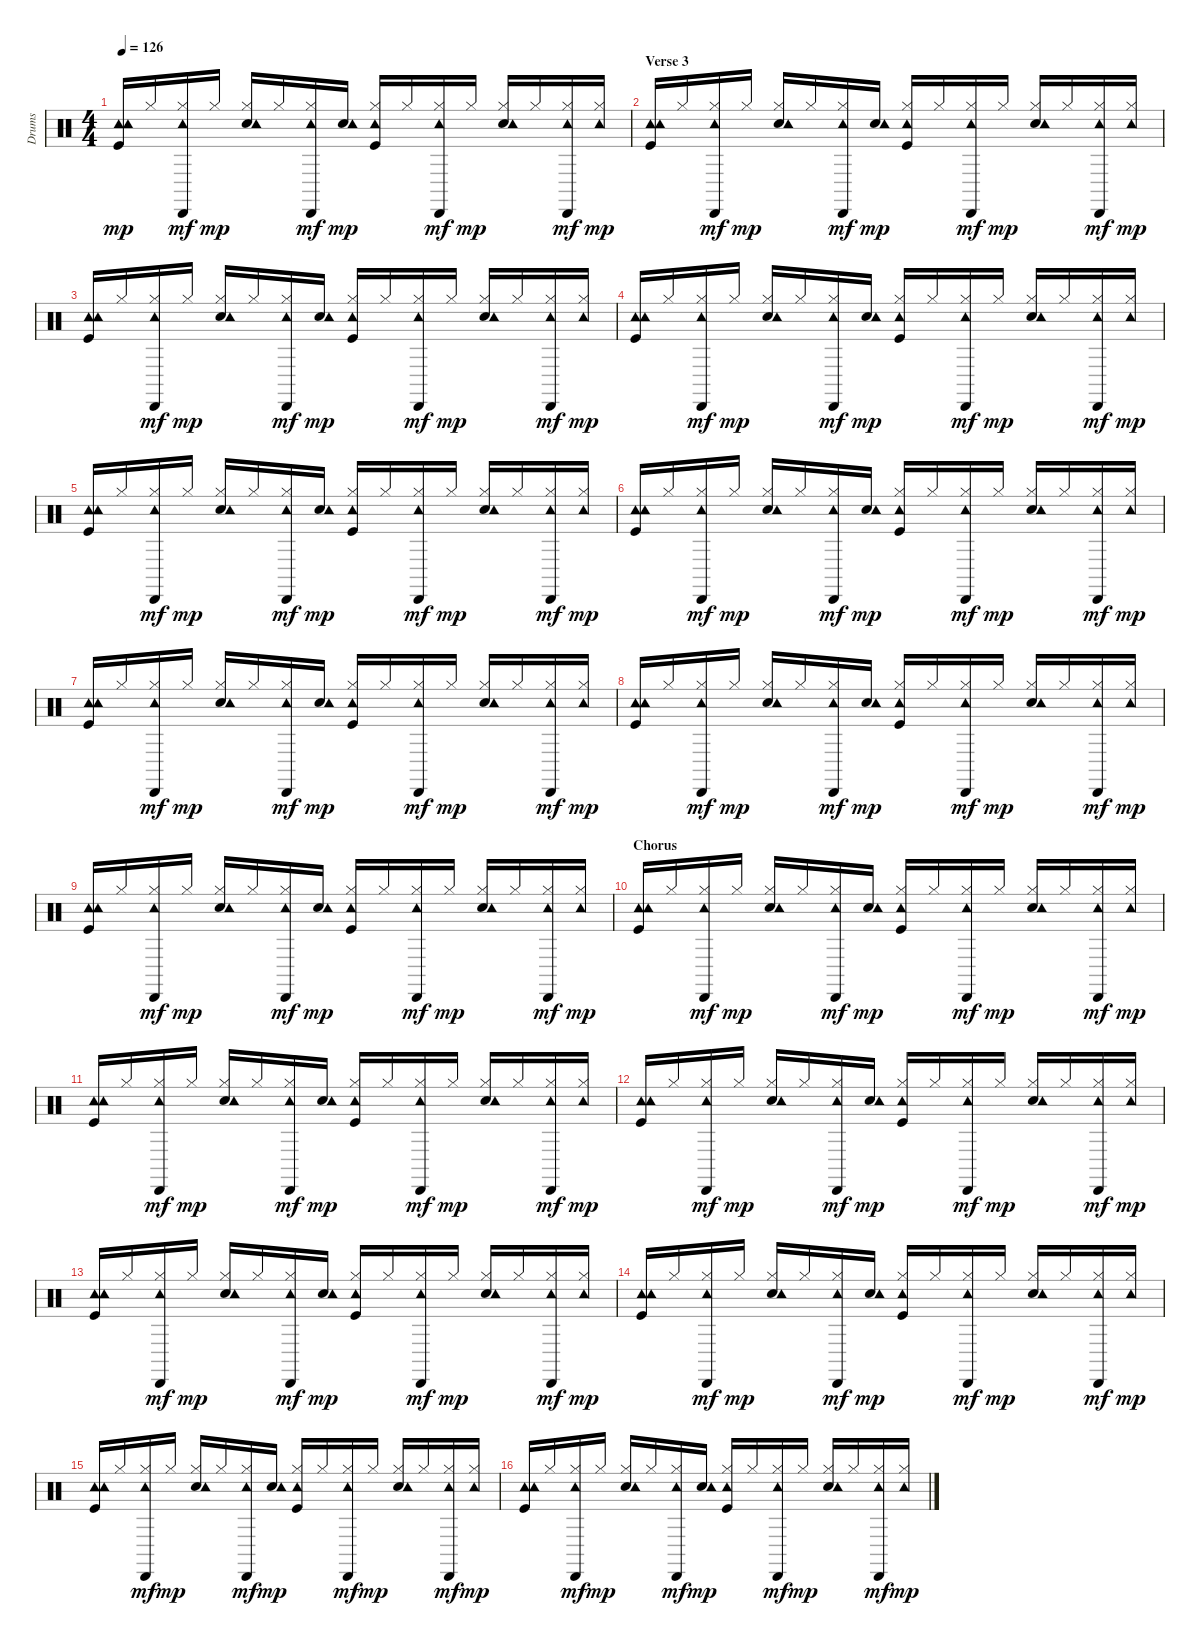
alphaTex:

\track ("Drums" "Drums") {instrument percussion}
\staff {score}
\articulation defaults
\ts (4 4)
\tempo 126
\clef neutral
\ks c
("Kick (hit)" "Tambourine (hit)" "Tambourine (hit)").16{dy mp} "Hi-Hat (closed)".16 ("Hi-Hat (closed)" "Tambourine (hit)" "Cabasa (hit)").16{dy mf} "Hi-Hat (closed)".16{dy mp} ("Snare (hit) 2" "Hi-Hat (closed)" "Tambourine (hit)").16 "Hi-Hat (closed)".16 ("Hi-Hat (closed)" "Tambourine (hit)" "Cabasa (hit)").16{dy mf} ("Snare (hit) 2" "Tambourine (hit)").16{dy mp} ("Kick (hit)" "Hi-Hat (closed)" "Tambourine (hit)").16 "Hi-Hat (closed)".16 ("Hi-Hat (closed)" "Tambourine (hit)" "Cabasa (hit)").16{dy mf} "Hi-Hat (closed)".16{dy mp} ("Snare (hit) 2" "Hi-Hat (closed)" "Tambourine (hit)").16 "Hi-Hat (closed)".16 ("Hi-Hat (closed)" "Tambourine (hit)" "Cabasa (hit)").16{dy mf} ("Hi-Hat (closed)" "Tambourine (hit)").16{dy mp} |
\section ("" "Verse 3")
("Kick (hit)" "Tambourine (hit)" "Tambourine (hit)").16 "Hi-Hat (closed)".16 ("Hi-Hat (closed)" "Tambourine (hit)" "Cabasa (hit)").16{dy mf} "Hi-Hat (closed)".16{dy mp} ("Snare (hit) 2" "Hi-Hat (closed)" "Tambourine (hit)").16 "Hi-Hat (closed)".16 ("Hi-Hat (closed)" "Tambourine (hit)" "Cabasa (hit)").16{dy mf} ("Snare (hit) 2" "Tambourine (hit)").16{dy mp} ("Kick (hit)" "Hi-Hat (closed)" "Tambourine (hit)").16 "Hi-Hat (closed)".16 ("Hi-Hat (closed)" "Tambourine (hit)" "Cabasa (hit)").16{dy mf} "Hi-Hat (closed)".16{dy mp} ("Snare (hit) 2" "Hi-Hat (closed)" "Tambourine (hit)").16 "Hi-Hat (closed)".16 ("Hi-Hat (closed)" "Tambourine (hit)" "Cabasa (hit)").16{dy mf} ("Hi-Hat (closed)" "Tambourine (hit)").16{dy mp} |
("Kick (hit)" "Tambourine (hit)" "Tambourine (hit)").16 "Hi-Hat (closed)".16 ("Hi-Hat (closed)" "Tambourine (hit)" "Cabasa (hit)").16{dy mf} "Hi-Hat (closed)".16{dy mp} ("Snare (hit) 2" "Hi-Hat (closed)" "Tambourine (hit)").16 "Hi-Hat (closed)".16 ("Hi-Hat (closed)" "Tambourine (hit)" "Cabasa (hit)").16{dy mf} ("Snare (hit) 2" "Tambourine (hit)").16{dy mp} ("Kick (hit)" "Hi-Hat (closed)" "Tambourine (hit)").16 "Hi-Hat (closed)".16 ("Hi-Hat (closed)" "Tambourine (hit)" "Cabasa (hit)").16{dy mf} "Hi-Hat (closed)".16{dy mp} ("Snare (hit) 2" "Hi-Hat (closed)" "Tambourine (hit)").16 "Hi-Hat (closed)".16 ("Hi-Hat (closed)" "Tambourine (hit)" "Cabasa (hit)").16{dy mf} ("Hi-Hat (closed)" "Tambourine (hit)").16{dy mp} |
("Kick (hit)" "Tambourine (hit)" "Tambourine (hit)").16 "Hi-Hat (closed)".16 ("Hi-Hat (closed)" "Tambourine (hit)" "Cabasa (hit)").16{dy mf} "Hi-Hat (closed)".16{dy mp} ("Snare (hit) 2" "Hi-Hat (closed)" "Tambourine (hit)").16 "Hi-Hat (closed)".16 ("Hi-Hat (closed)" "Tambourine (hit)" "Cabasa (hit)").16{dy mf} ("Snare (hit) 2" "Tambourine (hit)").16{dy mp} ("Kick (hit)" "Hi-Hat (closed)" "Tambourine (hit)").16 "Hi-Hat (closed)".16 ("Hi-Hat (closed)" "Tambourine (hit)" "Cabasa (hit)").16{dy mf} "Hi-Hat (closed)".16{dy mp} ("Snare (hit) 2" "Hi-Hat (closed)" "Tambourine (hit)").16 "Hi-Hat (closed)".16 ("Hi-Hat (closed)" "Tambourine (hit)" "Cabasa (hit)").16{dy mf} ("Hi-Hat (closed)" "Tambourine (hit)").16{dy mp} |
("Kick (hit)" "Tambourine (hit)" "Tambourine (hit)").16 "Hi-Hat (closed)".16 ("Hi-Hat (closed)" "Tambourine (hit)" "Cabasa (hit)").16{dy mf} "Hi-Hat (closed)".16{dy mp} ("Snare (hit) 2" "Hi-Hat (closed)" "Tambourine (hit)").16 "Hi-Hat (closed)".16 ("Hi-Hat (closed)" "Tambourine (hit)" "Cabasa (hit)").16{dy mf} ("Snare (hit) 2" "Tambourine (hit)").16{dy mp} ("Kick (hit)" "Hi-Hat (closed)" "Tambourine (hit)").16 "Hi-Hat (closed)".16 ("Hi-Hat (closed)" "Tambourine (hit)" "Cabasa (hit)").16{dy mf} "Hi-Hat (closed)".16{dy mp} ("Snare (hit) 2" "Hi-Hat (closed)" "Tambourine (hit)").16 "Hi-Hat (closed)".16 ("Hi-Hat (closed)" "Tambourine (hit)" "Cabasa (hit)").16{dy mf} ("Hi-Hat (closed)" "Tambourine (hit)").16{dy mp} |
("Kick (hit)" "Tambourine (hit)" "Tambourine (hit)").16 "Hi-Hat (closed)".16 ("Hi-Hat (closed)" "Tambourine (hit)" "Cabasa (hit)").16{dy mf} "Hi-Hat (closed)".16{dy mp} ("Snare (hit) 2" "Hi-Hat (closed)" "Tambourine (hit)").16 "Hi-Hat (closed)".16 ("Hi-Hat (closed)" "Tambourine (hit)" "Cabasa (hit)").16{dy mf} ("Snare (hit) 2" "Tambourine (hit)").16{dy mp} ("Kick (hit)" "Hi-Hat (closed)" "Tambourine (hit)").16 "Hi-Hat (closed)".16 ("Hi-Hat (closed)" "Tambourine (hit)" "Cabasa (hit)").16{dy mf} "Hi-Hat (closed)".16{dy mp} ("Snare (hit) 2" "Hi-Hat (closed)" "Tambourine (hit)").16 "Hi-Hat (closed)".16 ("Hi-Hat (closed)" "Tambourine (hit)" "Cabasa (hit)").16{dy mf} ("Hi-Hat (closed)" "Tambourine (hit)").16{dy mp} |
("Kick (hit)" "Tambourine (hit)" "Tambourine (hit)").16 "Hi-Hat (closed)".16 ("Hi-Hat (closed)" "Tambourine (hit)" "Cabasa (hit)").16{dy mf} "Hi-Hat (closed)".16{dy mp} ("Snare (hit) 2" "Hi-Hat (closed)" "Tambourine (hit)").16 "Hi-Hat (closed)".16 ("Hi-Hat (closed)" "Tambourine (hit)" "Cabasa (hit)").16{dy mf} ("Snare (hit) 2" "Tambourine (hit)").16{dy mp} ("Kick (hit)" "Hi-Hat (closed)" "Tambourine (hit)").16 "Hi-Hat (closed)".16 ("Hi-Hat (closed)" "Tambourine (hit)" "Cabasa (hit)").16{dy mf} "Hi-Hat (closed)".16{dy mp} ("Snare (hit) 2" "Hi-Hat (closed)" "Tambourine (hit)").16 "Hi-Hat (closed)".16 ("Hi-Hat (closed)" "Tambourine (hit)" "Cabasa (hit)").16{dy mf} ("Hi-Hat (closed)" "Tambourine (hit)").16{dy mp} |
("Kick (hit)" "Tambourine (hit)" "Tambourine (hit)").16 "Hi-Hat (closed)".16 ("Hi-Hat (closed)" "Tambourine (hit)" "Cabasa (hit)").16{dy mf} "Hi-Hat (closed)".16{dy mp} ("Snare (hit) 2" "Hi-Hat (closed)" "Tambourine (hit)").16 "Hi-Hat (closed)".16 ("Hi-Hat (closed)" "Tambourine (hit)" "Cabasa (hit)").16{dy mf} ("Snare (hit) 2" "Tambourine (hit)").16{dy mp} ("Kick (hit)" "Hi-Hat (closed)" "Tambourine (hit)").16 "Hi-Hat (closed)".16 ("Hi-Hat (closed)" "Tambourine (hit)" "Cabasa (hit)").16{dy mf} "Hi-Hat (closed)".16{dy mp} ("Snare (hit) 2" "Hi-Hat (closed)" "Tambourine (hit)").16 "Hi-Hat (closed)".16 ("Hi-Hat (closed)" "Tambourine (hit)" "Cabasa (hit)").16{dy mf} ("Hi-Hat (closed)" "Tambourine (hit)").16{dy mp} |
("Kick (hit)" "Tambourine (hit)" "Tambourine (hit)").16 "Hi-Hat (closed)".16 ("Hi-Hat (closed)" "Tambourine (hit)" "Cabasa (hit)").16{dy mf} "Hi-Hat (closed)".16{dy mp} ("Snare (hit) 2" "Hi-Hat (closed)" "Tambourine (hit)").16 "Hi-Hat (closed)".16 ("Hi-Hat (closed)" "Tambourine (hit)" "Cabasa (hit)").16{dy mf} ("Snare (hit) 2" "Tambourine (hit)").16{dy mp} ("Kick (hit)" "Hi-Hat (closed)" "Tambourine (hit)").16 "Hi-Hat (closed)".16 ("Hi-Hat (closed)" "Tambourine (hit)" "Cabasa (hit)").16{dy mf} "Hi-Hat (closed)".16{dy mp} ("Snare (hit) 2" "Hi-Hat (closed)" "Tambourine (hit)").16 "Hi-Hat (closed)".16 ("Hi-Hat (closed)" "Tambourine (hit)" "Cabasa (hit)").16{dy mf} ("Hi-Hat (closed)" "Tambourine (hit)").16{dy mp} |
\section ("" "Chorus")
("Kick (hit)" "Tambourine (hit)" "Tambourine (hit)").16 "Hi-Hat (closed)".16 ("Hi-Hat (closed)" "Tambourine (hit)" "Cabasa (hit)").16{dy mf} "Hi-Hat (closed)".16{dy mp} ("Snare (hit) 2" "Hi-Hat (closed)" "Tambourine (hit)").16 "Hi-Hat (closed)".16 ("Hi-Hat (closed)" "Tambourine (hit)" "Cabasa (hit)").16{dy mf} ("Snare (hit) 2" "Tambourine (hit)").16{dy mp} ("Kick (hit)" "Hi-Hat (closed)" "Tambourine (hit)").16 "Hi-Hat (closed)".16 ("Hi-Hat (closed)" "Tambourine (hit)" "Cabasa (hit)").16{dy mf} "Hi-Hat (closed)".16{dy mp} ("Snare (hit) 2" "Hi-Hat (closed)" "Tambourine (hit)").16 "Hi-Hat (closed)".16 ("Hi-Hat (closed)" "Tambourine (hit)" "Cabasa (hit)").16{dy mf} ("Hi-Hat (closed)" "Tambourine (hit)").16{dy mp} |
("Kick (hit)" "Tambourine (hit)" "Tambourine (hit)").16 "Hi-Hat (closed)".16 ("Hi-Hat (closed)" "Tambourine (hit)" "Cabasa (hit)").16{dy mf} "Hi-Hat (closed)".16{dy mp} ("Snare (hit) 2" "Hi-Hat (closed)" "Tambourine (hit)").16 "Hi-Hat (closed)".16 ("Hi-Hat (closed)" "Tambourine (hit)" "Cabasa (hit)").16{dy mf} ("Snare (hit) 2" "Tambourine (hit)").16{dy mp} ("Kick (hit)" "Hi-Hat (closed)" "Tambourine (hit)").16 "Hi-Hat (closed)".16 ("Hi-Hat (closed)" "Tambourine (hit)" "Cabasa (hit)").16{dy mf} "Hi-Hat (closed)".16{dy mp} ("Snare (hit) 2" "Hi-Hat (closed)" "Tambourine (hit)").16 "Hi-Hat (closed)".16 ("Hi-Hat (closed)" "Tambourine (hit)" "Cabasa (hit)").16{dy mf} ("Hi-Hat (closed)" "Tambourine (hit)").16{dy mp} |
("Kick (hit)" "Tambourine (hit)" "Tambourine (hit)").16 "Hi-Hat (closed)".16 ("Hi-Hat (closed)" "Tambourine (hit)" "Cabasa (hit)").16{dy mf} "Hi-Hat (closed)".16{dy mp} ("Snare (hit) 2" "Hi-Hat (closed)" "Tambourine (hit)").16 "Hi-Hat (closed)".16 ("Hi-Hat (closed)" "Tambourine (hit)" "Cabasa (hit)").16{dy mf} ("Snare (hit) 2" "Tambourine (hit)").16{dy mp} ("Kick (hit)" "Hi-Hat (closed)" "Tambourine (hit)").16 "Hi-Hat (closed)".16 ("Hi-Hat (closed)" "Tambourine (hit)" "Cabasa (hit)").16{dy mf} "Hi-Hat (closed)".16{dy mp} ("Snare (hit) 2" "Hi-Hat (closed)" "Tambourine (hit)").16 "Hi-Hat (closed)".16 ("Hi-Hat (closed)" "Tambourine (hit)" "Cabasa (hit)").16{dy mf} ("Hi-Hat (closed)" "Tambourine (hit)").16{dy mp} |
("Kick (hit)" "Tambourine (hit)" "Tambourine (hit)").16 "Hi-Hat (closed)".16 ("Hi-Hat (closed)" "Tambourine (hit)" "Cabasa (hit)").16{dy mf} "Hi-Hat (closed)".16{dy mp} ("Snare (hit) 2" "Hi-Hat (closed)" "Tambourine (hit)").16 "Hi-Hat (closed)".16 ("Hi-Hat (closed)" "Tambourine (hit)" "Cabasa (hit)").16{dy mf} ("Snare (hit) 2" "Tambourine (hit)").16{dy mp} ("Kick (hit)" "Hi-Hat (closed)" "Tambourine (hit)").16 "Hi-Hat (closed)".16 ("Hi-Hat (closed)" "Tambourine (hit)" "Cabasa (hit)").16{dy mf} "Hi-Hat (closed)".16{dy mp} ("Snare (hit) 2" "Hi-Hat (closed)" "Tambourine (hit)").16 "Hi-Hat (closed)".16 ("Hi-Hat (closed)" "Tambourine (hit)" "Cabasa (hit)").16{dy mf} ("Hi-Hat (closed)" "Tambourine (hit)").16{dy mp} |
("Kick (hit)" "Tambourine (hit)" "Tambourine (hit)").16 "Hi-Hat (closed)".16 ("Hi-Hat (closed)" "Tambourine (hit)" "Cabasa (hit)").16{dy mf} "Hi-Hat (closed)".16{dy mp} ("Snare (hit) 2" "Hi-Hat (closed)" "Tambourine (hit)").16 "Hi-Hat (closed)".16 ("Hi-Hat (closed)" "Tambourine (hit)" "Cabasa (hit)").16{dy mf} ("Snare (hit) 2" "Tambourine (hit)").16{dy mp} ("Kick (hit)" "Hi-Hat (closed)" "Tambourine (hit)").16 "Hi-Hat (closed)".16 ("Hi-Hat (closed)" "Tambourine (hit)" "Cabasa (hit)").16{dy mf} "Hi-Hat (closed)".16{dy mp} ("Snare (hit) 2" "Hi-Hat (closed)" "Tambourine (hit)").16 "Hi-Hat (closed)".16 ("Hi-Hat (closed)" "Tambourine (hit)" "Cabasa (hit)").16{dy mf} ("Hi-Hat (closed)" "Tambourine (hit)").16{dy mp} |
("Kick (hit)" "Tambourine (hit)" "Tambourine (hit)").16 "Hi-Hat (closed)".16 ("Hi-Hat (closed)" "Tambourine (hit)" "Cabasa (hit)").16{dy mf} "Hi-Hat (closed)".16{dy mp} ("Snare (hit) 2" "Hi-Hat (closed)" "Tambourine (hit)").16 "Hi-Hat (closed)".16 ("Hi-Hat (closed)" "Tambourine (hit)" "Cabasa (hit)").16{dy mf} ("Snare (hit) 2" "Tambourine (hit)").16{dy mp} ("Kick (hit)" "Hi-Hat (closed)" "Tambourine (hit)").16 "Hi-Hat (closed)".16 ("Hi-Hat (closed)" "Tambourine (hit)" "Cabasa (hit)").16{dy mf} "Hi-Hat (closed)".16{dy mp} ("Snare (hit) 2" "Hi-Hat (closed)" "Tambourine (hit)").16 "Hi-Hat (closed)".16 ("Hi-Hat (closed)" "Tambourine (hit)" "Cabasa (hit)").16{dy mf} ("Hi-Hat (closed)" "Tambourine (hit)").16{dy mp} |
("Kick (hit)" "Tambourine (hit)" "Tambourine (hit)").16 "Hi-Hat (closed)".16 ("Hi-Hat (closed)" "Tambourine (hit)" "Cabasa (hit)").16{dy mf} "Hi-Hat (closed)".16{dy mp} ("Snare (hit) 2" "Hi-Hat (closed)" "Tambourine (hit)").16 "Hi-Hat (closed)".16 ("Hi-Hat (closed)" "Tambourine (hit)" "Cabasa (hit)").16{dy mf} ("Snare (hit) 2" "Tambourine (hit)").16{dy mp} ("Kick (hit)" "Hi-Hat (closed)" "Tambourine (hit)").16 "Hi-Hat (closed)".16 ("Hi-Hat (closed)" "Tambourine (hit)" "Cabasa (hit)").16{dy mf} "Hi-Hat (closed)".16{dy mp} ("Snare (hit) 2" "Hi-Hat (closed)" "Tambourine (hit)").16 "Hi-Hat (closed)".16 ("Hi-Hat (closed)" "Tambourine (hit)" "Cabasa (hit)").16{dy mf} ("Hi-Hat (closed)" "Tambourine (hit)").16{dy mp}
